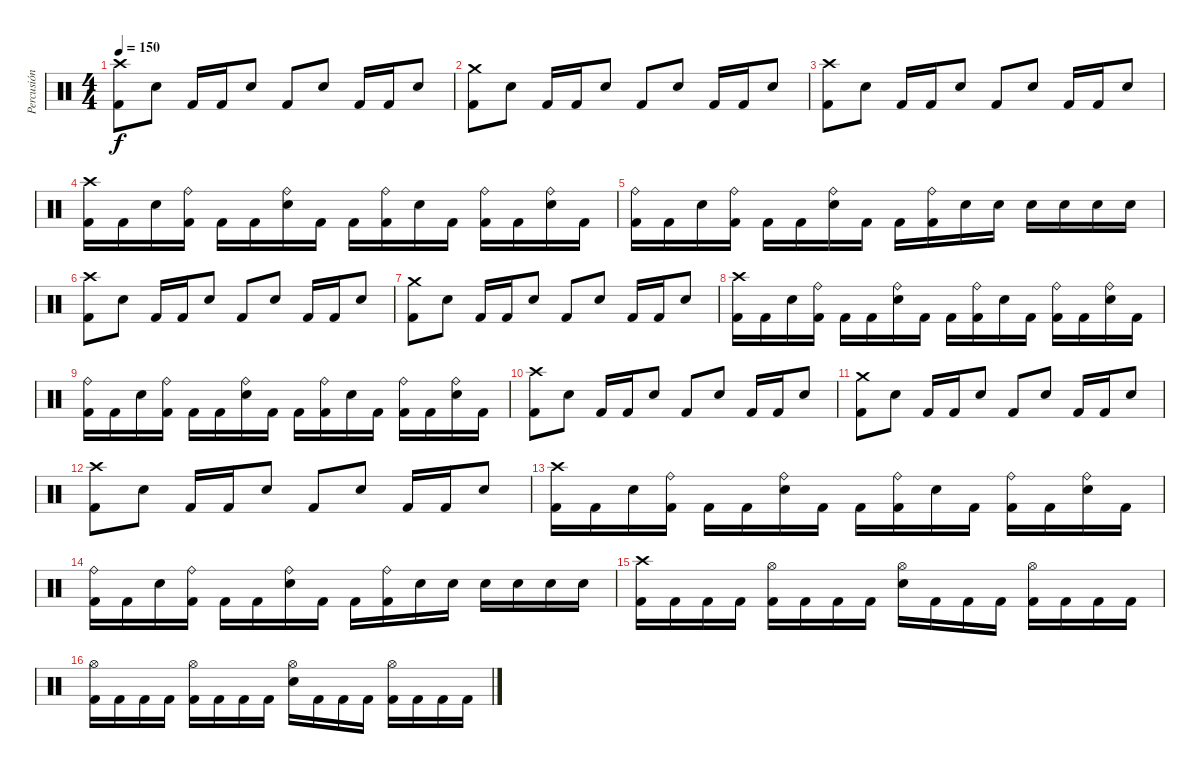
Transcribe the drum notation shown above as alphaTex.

\track ("Percusión" "Percusión") {instrument percussion}
\staff {score}
\articulation defaults
\ts (4 4)
\tempo 150
\clef neutral
\ks c
("Crash high (hit)" "Kick (hit) 2").8{dy f} "Electric Snare (hit)".8 "Kick (hit) 2".16 "Kick (hit) 2".16 "Electric Snare (hit)".8 "Kick (hit) 2".8 "Electric Snare (hit)".8 "Kick (hit) 2".16 "Kick (hit) 2".16 "Electric Snare (hit)".8 |
("Crash medium (hit)" "Kick (hit) 2").8 "Electric Snare (hit)".8 "Kick (hit) 2".16 "Kick (hit) 2".16 "Electric Snare (hit)".8 "Kick (hit) 2".8 "Electric Snare (hit)".8 "Kick (hit) 2".16 "Kick (hit) 2".16 "Electric Snare (hit)".8 |
("Crash high (hit)" "Kick (hit) 2").8 "Electric Snare (hit)".8 "Kick (hit) 2".16 "Kick (hit) 2".16 "Electric Snare (hit)".8 "Kick (hit) 2".8 "Electric Snare (hit)".8 "Kick (hit) 2".16 "Kick (hit) 2".16 "Electric Snare (hit)".8 |
("Crash high (hit)" "Kick (hit) 2").16 "Kick (hit) 2".16 "Electric Snare (hit)".16 ("Ride (bell)" "Kick (hit) 2").16 "Kick (hit) 2".16 "Kick (hit) 2".16 ("Ride (bell)" "Electric Snare (hit)").16 "Kick (hit) 2".16 "Kick (hit) 2".16 ("Ride (bell)" "Kick (hit) 2").16 "Electric Snare (hit)".16 "Kick (hit) 2".16 ("Ride (bell)" "Kick (hit) 2").16 "Kick (hit) 2".16 ("Ride (bell)" "Electric Snare (hit)").16 "Kick (hit) 2".16 |
("Ride (bell)" "Kick (hit) 2").16 "Kick (hit) 2".16 "Electric Snare (hit)".16 ("Ride (bell)" "Kick (hit) 2").16 "Kick (hit) 2".16 "Kick (hit) 2".16 ("Ride (bell)" "Electric Snare (hit)").16 "Kick (hit) 2".16 "Kick (hit) 2".16 ("Ride (bell)" "Kick (hit) 2").16 "Electric Snare (hit)".16 "Electric Snare (hit)".16 "Electric Snare (hit)".16 "Electric Snare (hit)".16 "Electric Snare (hit)".16 "Electric Snare (hit)".16 |
("Crash high (hit)" "Kick (hit) 2").8 "Electric Snare (hit)".8 "Kick (hit) 2".16 "Kick (hit) 2".16 "Electric Snare (hit)".8 "Kick (hit) 2".8 "Electric Snare (hit)".8 "Kick (hit) 2".16 "Kick (hit) 2".16 "Electric Snare (hit)".8 |
("Crash medium (hit)" "Kick (hit) 2").8 "Electric Snare (hit)".8 "Kick (hit) 2".16 "Kick (hit) 2".16 "Electric Snare (hit)".8 "Kick (hit) 2".8 "Electric Snare (hit)".8 "Kick (hit) 2".16 "Kick (hit) 2".16 "Electric Snare (hit)".8 |
("Crash high (hit)" "Kick (hit) 2").16 "Kick (hit) 2".16 "Electric Snare (hit)".16 ("Ride (bell)" "Kick (hit) 2").16 "Kick (hit) 2".16 "Kick (hit) 2".16 ("Ride (bell)" "Electric Snare (hit)").16 "Kick (hit) 2".16 "Kick (hit) 2".16 ("Ride (bell)" "Kick (hit) 2").16 "Electric Snare (hit)".16 "Kick (hit) 2".16 ("Ride (bell)" "Kick (hit) 2").16 "Kick (hit) 2".16 ("Ride (bell)" "Electric Snare (hit)").16 "Kick (hit) 2".16 |
("Ride (bell)" "Kick (hit) 2").16 "Kick (hit) 2".16 "Electric Snare (hit)".16 ("Ride (bell)" "Kick (hit) 2").16 "Kick (hit) 2".16 "Kick (hit) 2".16 ("Ride (bell)" "Electric Snare (hit)").16 "Kick (hit) 2".16 "Kick (hit) 2".16 ("Ride (bell)" "Kick (hit) 2").16 "Electric Snare (hit)".16 "Kick (hit) 2".16 ("Ride (bell)" "Kick (hit) 2").16 "Kick (hit) 2".16 ("Ride (bell)" "Electric Snare (hit)").16 "Kick (hit) 2".16 |
("Crash high (hit)" "Kick (hit) 2").8 "Electric Snare (hit)".8 "Kick (hit) 2".16 "Kick (hit) 2".16 "Electric Snare (hit)".8 "Kick (hit) 2".8 "Electric Snare (hit)".8 "Kick (hit) 2".16 "Kick (hit) 2".16 "Electric Snare (hit)".8 |
("Crash medium (hit)" "Kick (hit) 2").8 "Electric Snare (hit)".8 "Kick (hit) 2".16 "Kick (hit) 2".16 "Electric Snare (hit)".8 "Kick (hit) 2".8 "Electric Snare (hit)".8 "Kick (hit) 2".16 "Kick (hit) 2".16 "Electric Snare (hit)".8 |
("Crash high (hit)" "Kick (hit) 2").8 "Electric Snare (hit)".8 "Kick (hit) 2".16 "Kick (hit) 2".16 "Electric Snare (hit)".8 "Kick (hit) 2".8 "Electric Snare (hit)".8 "Kick (hit) 2".16 "Kick (hit) 2".16 "Electric Snare (hit)".8 |
("Crash high (hit)" "Kick (hit) 2").16 "Kick (hit) 2".16 "Electric Snare (hit)".16 ("Ride (bell)" "Kick (hit) 2").16 "Kick (hit) 2".16 "Kick (hit) 2".16 ("Ride (bell)" "Electric Snare (hit)").16 "Kick (hit) 2".16 "Kick (hit) 2".16 ("Ride (bell)" "Kick (hit) 2").16 "Electric Snare (hit)".16 "Kick (hit) 2".16 ("Ride (bell)" "Kick (hit) 2").16 "Kick (hit) 2".16 ("Ride (bell)" "Electric Snare (hit)").16 "Kick (hit) 2".16 |
("Ride (bell)" "Kick (hit) 2").16 "Kick (hit) 2".16 "Electric Snare (hit)".16 ("Ride (bell)" "Kick (hit) 2").16 "Kick (hit) 2".16 "Kick (hit) 2".16 ("Ride (bell)" "Electric Snare (hit)").16 "Kick (hit) 2".16 "Kick (hit) 2".16 ("Ride (bell)" "Kick (hit) 2").16 "Electric Snare (hit)".16 "Electric Snare (hit)".16 "Electric Snare (hit)".16 "Electric Snare (hit)".16 "Electric Snare (hit)".16 "Electric Snare (hit)".16 |
("Crash high (hit)" "Kick (hit) 2").16 "Kick (hit) 2".16 "Kick (hit) 2".16 "Kick (hit) 2".16 ("Hi-Hat (open)" "Kick (hit) 2").16 "Kick (hit) 2".16 "Kick (hit) 2".16 "Kick (hit) 2".16 ("Hi-Hat (open)" "Electric Snare (hit)").16 "Kick (hit) 2".16 "Kick (hit) 2".16 "Kick (hit) 2".16 ("Hi-Hat (open)" "Kick (hit) 2").16 "Kick (hit) 2".16 "Kick (hit) 2".16 "Kick (hit) 2".16 |
("Hi-Hat (open)" "Kick (hit) 2").16 "Kick (hit) 2".16 "Kick (hit) 2".16 "Kick (hit) 2".16 ("Hi-Hat (open)" "Kick (hit) 2").16 "Kick (hit) 2".16 "Kick (hit) 2".16 "Kick (hit) 2".16 ("Hi-Hat (open)" "Electric Snare (hit)").16 "Kick (hit) 2".16 "Kick (hit) 2".16 "Kick (hit) 2".16 ("Hi-Hat (open)" "Kick (hit) 2").16 "Kick (hit) 2".16 "Kick (hit) 2".16 "Kick (hit) 2".16
